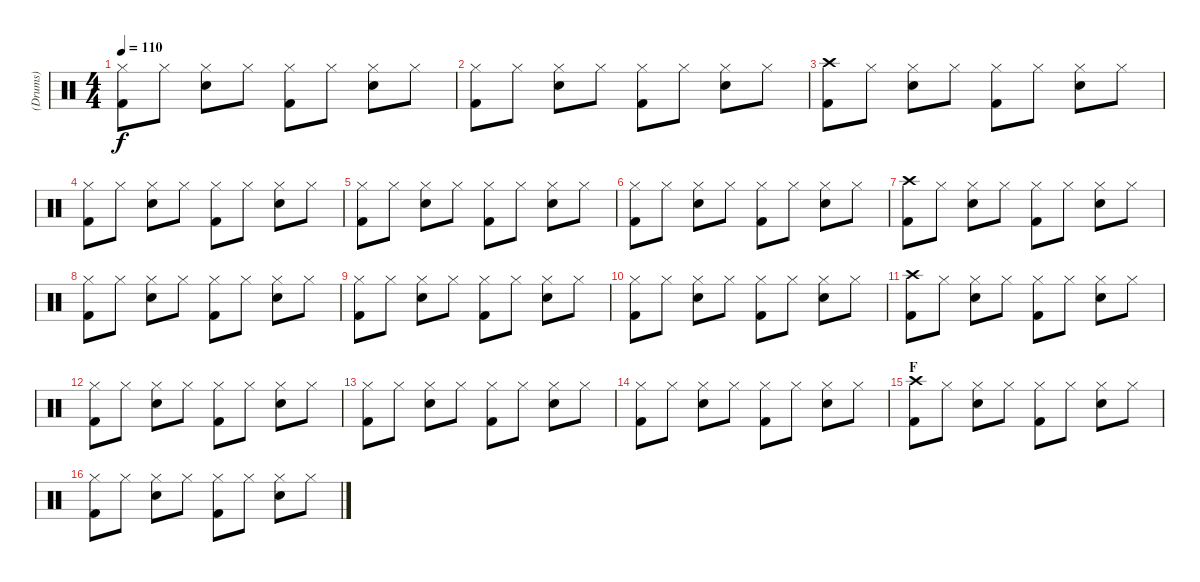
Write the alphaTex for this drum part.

\track ("(Drums)" "(Drums)") {instrument percussion}
\staff {score}
\articulation defaults
\ts (4 4)
\tempo 110
\clef neutral
\ks c
("Hi-Hat (closed)" "Kick (hit) 2").8{dy f} "Hi-Hat (closed)".8 ("Hi-Hat (closed)" "Electric Snare (hit)").8 "Hi-Hat (closed)".8 ("Hi-Hat (closed)" "Kick (hit) 2").8 "Hi-Hat (closed)".8 ("Hi-Hat (closed)" "Electric Snare (hit)").8 "Hi-Hat (closed)".8 |
("Hi-Hat (closed)" "Kick (hit) 2").8 "Hi-Hat (closed)".8 ("Hi-Hat (closed)" "Electric Snare (hit)").8 "Hi-Hat (closed)".8 ("Hi-Hat (closed)" "Kick (hit) 2").8 "Hi-Hat (closed)".8 ("Hi-Hat (closed)" "Electric Snare (hit)").8 "Hi-Hat (closed)".8 |
("Crash high (hit)" "Kick (hit) 2").8 "Hi-Hat (closed)".8 ("Hi-Hat (closed)" "Electric Snare (hit)").8 "Hi-Hat (closed)".8 ("Hi-Hat (closed)" "Kick (hit) 2").8 "Hi-Hat (closed)".8 ("Hi-Hat (closed)" "Electric Snare (hit)").8 "Hi-Hat (closed)".8 |
("Hi-Hat (closed)" "Kick (hit) 2").8 "Hi-Hat (closed)".8 ("Hi-Hat (closed)" "Electric Snare (hit)").8 "Hi-Hat (closed)".8 ("Hi-Hat (closed)" "Kick (hit) 2").8 "Hi-Hat (closed)".8 ("Hi-Hat (closed)" "Electric Snare (hit)").8 "Hi-Hat (closed)".8 |
("Hi-Hat (closed)" "Kick (hit) 2").8 "Hi-Hat (closed)".8 ("Hi-Hat (closed)" "Electric Snare (hit)").8 "Hi-Hat (closed)".8 ("Hi-Hat (closed)" "Kick (hit) 2").8 "Hi-Hat (closed)".8 ("Hi-Hat (closed)" "Electric Snare (hit)").8 "Hi-Hat (closed)".8 |
("Hi-Hat (closed)" "Kick (hit) 2").8 "Hi-Hat (closed)".8 ("Hi-Hat (closed)" "Electric Snare (hit)").8 "Hi-Hat (closed)".8 ("Hi-Hat (closed)" "Kick (hit) 2").8 "Hi-Hat (closed)".8 ("Hi-Hat (closed)" "Electric Snare (hit)").8 "Hi-Hat (closed)".8 |
("Crash high (hit)" "Kick (hit) 2").8 "Hi-Hat (closed)".8 ("Hi-Hat (closed)" "Electric Snare (hit)").8 "Hi-Hat (closed)".8 ("Hi-Hat (closed)" "Kick (hit) 2").8 "Hi-Hat (closed)".8 ("Hi-Hat (closed)" "Electric Snare (hit)").8 "Hi-Hat (closed)".8 |
("Hi-Hat (closed)" "Kick (hit) 2").8 "Hi-Hat (closed)".8 ("Hi-Hat (closed)" "Electric Snare (hit)").8 "Hi-Hat (closed)".8 ("Hi-Hat (closed)" "Kick (hit) 2").8 "Hi-Hat (closed)".8 ("Hi-Hat (closed)" "Electric Snare (hit)").8 "Hi-Hat (closed)".8 |
("Hi-Hat (closed)" "Kick (hit) 2").8 "Hi-Hat (closed)".8 ("Hi-Hat (closed)" "Electric Snare (hit)").8 "Hi-Hat (closed)".8 ("Hi-Hat (closed)" "Kick (hit) 2").8 "Hi-Hat (closed)".8 ("Hi-Hat (closed)" "Electric Snare (hit)").8 "Hi-Hat (closed)".8 |
("Hi-Hat (closed)" "Kick (hit) 2").8 "Hi-Hat (closed)".8 ("Hi-Hat (closed)" "Electric Snare (hit)").8 "Hi-Hat (closed)".8 ("Hi-Hat (closed)" "Kick (hit) 2").8 "Hi-Hat (closed)".8 ("Hi-Hat (closed)" "Electric Snare (hit)").8 "Hi-Hat (closed)".8 |
("Crash high (hit)" "Kick (hit) 2").8 "Hi-Hat (closed)".8 ("Hi-Hat (closed)" "Electric Snare (hit)").8 "Hi-Hat (closed)".8 ("Hi-Hat (closed)" "Kick (hit) 2").8 "Hi-Hat (closed)".8 ("Hi-Hat (closed)" "Electric Snare (hit)").8 "Hi-Hat (closed)".8 |
("Hi-Hat (closed)" "Kick (hit) 2").8 "Hi-Hat (closed)".8 ("Hi-Hat (closed)" "Electric Snare (hit)").8 "Hi-Hat (closed)".8 ("Hi-Hat (closed)" "Kick (hit) 2").8 "Hi-Hat (closed)".8 ("Hi-Hat (closed)" "Electric Snare (hit)").8 "Hi-Hat (closed)".8 |
("Hi-Hat (closed)" "Kick (hit) 2").8 "Hi-Hat (closed)".8 ("Hi-Hat (closed)" "Electric Snare (hit)").8 "Hi-Hat (closed)".8 ("Hi-Hat (closed)" "Kick (hit) 2").8 "Hi-Hat (closed)".8 ("Hi-Hat (closed)" "Electric Snare (hit)").8 "Hi-Hat (closed)".8 |
("Hi-Hat (closed)" "Kick (hit) 2").8 "Hi-Hat (closed)".8 ("Hi-Hat (closed)" "Electric Snare (hit)").8 "Hi-Hat (closed)".8 ("Hi-Hat (closed)" "Kick (hit) 2").8 "Hi-Hat (closed)".8 ("Hi-Hat (closed)" "Electric Snare (hit)").8 "Hi-Hat (closed)".8 |
\section ("" "F")
("Crash high (hit)" "Kick (hit) 2").8 "Hi-Hat (closed)".8 ("Hi-Hat (closed)" "Electric Snare (hit)").8 "Hi-Hat (closed)".8 ("Hi-Hat (closed)" "Kick (hit) 2").8 "Hi-Hat (closed)".8 ("Hi-Hat (closed)" "Electric Snare (hit)").8 "Hi-Hat (closed)".8 |
("Hi-Hat (closed)" "Kick (hit) 2").8 "Hi-Hat (closed)".8 ("Hi-Hat (closed)" "Electric Snare (hit)").8 "Hi-Hat (closed)".8 ("Hi-Hat (closed)" "Kick (hit) 2").8 "Hi-Hat (closed)".8 ("Hi-Hat (closed)" "Electric Snare (hit)").8 "Hi-Hat (closed)".8
